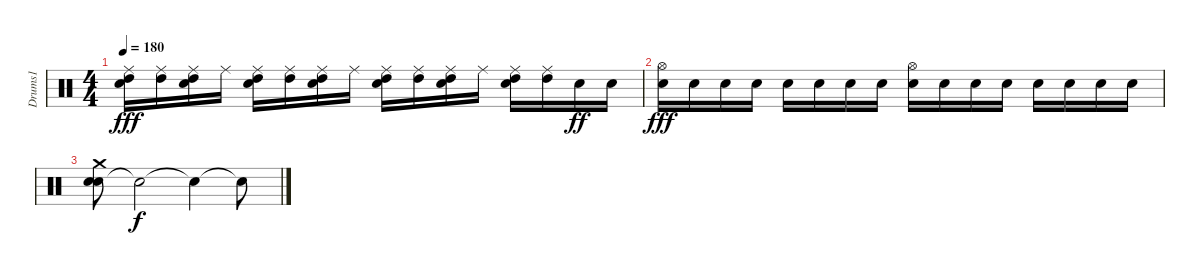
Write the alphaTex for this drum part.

\track ("Drums1" "Drums1") {instrument percussion}
\staff {score}
\articulation defaults
\ts (4 4)
\tempo 180
\clef neutral
\ks c
("Electric Snare (hit)" "Ride (middle)" "High Tom (hit)").16{dy fff} ("Ride (middle)" "High Tom (hit)").16 ("Electric Snare (hit)" "Ride (middle)" "High Tom (hit)").16 "Ride (middle)".16 ("Electric Snare (hit)" "Ride (middle)" "High Tom (hit)").16 ("Ride (middle)" "High Tom (hit)").16 ("Electric Snare (hit)" "Ride (middle)" "High Tom (hit)").16 "Ride (middle)".16 ("Electric Snare (hit)" "Ride (middle)" "High Tom (hit)").16 ("Ride (middle)" "High Tom (hit)").16 ("Electric Snare (hit)" "Ride (middle)" "High Tom (hit)").16 "Ride (middle)".16 ("Electric Snare (hit)" "Ride (middle)" "High Tom (hit)").16 ("Ride (middle)" "High Tom (hit)").16 "Electric Snare (hit)".16{dy ff} "Electric Snare (hit)".16 |
("Hi-Hat (open)" "Electric Snare (hit)").16{dy fff} "Electric Snare (hit)".16 "Electric Snare (hit)".16 "Electric Snare (hit)".16 "Electric Snare (hit)".16 "Electric Snare (hit)".16 "Electric Snare (hit)".16 "Electric Snare (hit)".16 ("Hi-Hat (open)" "Electric Snare (hit)").16 "Electric Snare (hit)".16 "Electric Snare (hit)".16 "Electric Snare (hit)".16 "Electric Snare (hit)".16 "Electric Snare (hit)".16 "Electric Snare (hit)".16 "Electric Snare (hit)".16 |
("Electric Snare (hit)" "Electric Snare (hit)" "Crash medium (hit)").8 "Snare (hit)"{t}.2{dy f} "Snare (hit)"{t}.4 "Snare (hit)"{t}.8
